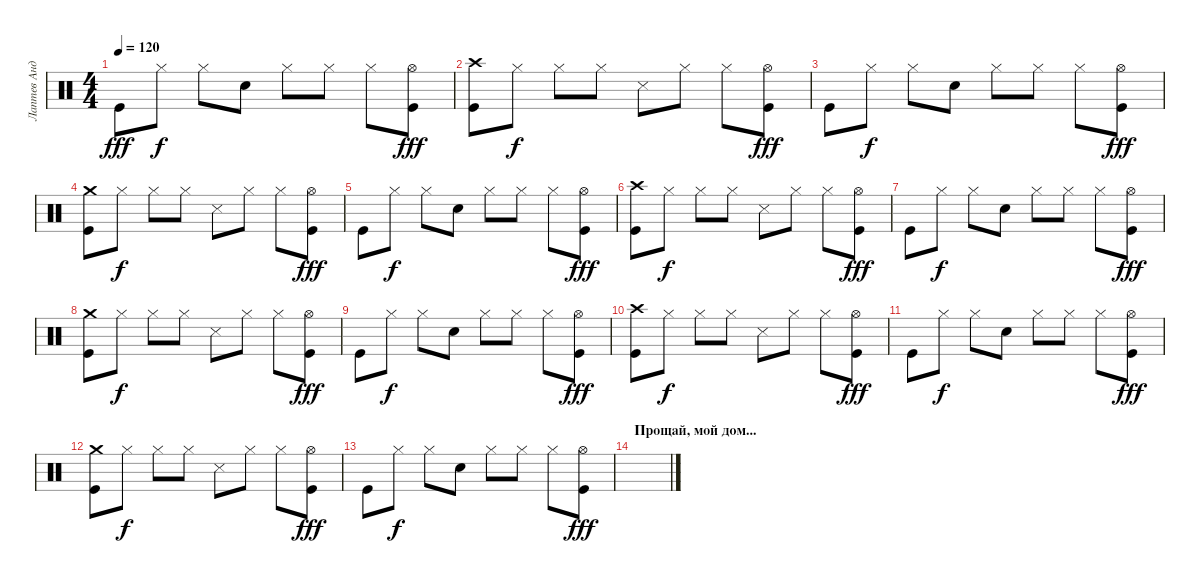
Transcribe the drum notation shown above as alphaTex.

\track ("Лаптев Андрей" "Лаптев Анд") {instrument percussion}
\staff {score}
\articulation defaults
\ts (4 4)
\tempo 120
\clef neutral
\ks c "Kick (hit)".8{dy fff} "Hi-Hat (closed)".8{dy f} "Hi-Hat (closed)".8 "Snare (hit) 2".8 "Hi-Hat (closed)".8 "Hi-Hat (closed)".8 "Hi-Hat (closed)".8
("Kick (hit)" "Hi-Hat (open)").8{dy fff} |
("Kick (hit)" "Crash high (hit)").8 "Hi-Hat (closed)".8{dy f} "Hi-Hat (closed)".8 "Hi-Hat (closed)".8 "Snare (side stick) 3".8 "Hi-Hat (closed)".8 "Hi-Hat (closed)".8 ("Hi-Hat (open)" "Kick (hit)").8{dy fff} |
"Kick (hit)".8 "Hi-Hat (closed)".8{dy f} "Hi-Hat (closed)".8 "Snare (hit) 2".8 "Hi-Hat (closed)".8 "Hi-Hat (closed)".8 "Hi-Hat (closed)".8 ("Kick (hit)" "Hi-Hat (open)").8{dy fff} |
("Kick (hit)" "Crash medium (hit)").8 "Hi-Hat (closed)".8{dy f} "Hi-Hat (closed)".8 "Hi-Hat (closed)".8 "Snare (side stick) 3".8 "Hi-Hat (closed)".8 "Hi-Hat (closed)".8 ("Kick (hit)" "Hi-Hat (open)").8{dy fff} |
"Kick (hit)".8 "Hi-Hat (closed)".8{dy f} "Hi-Hat (closed)".8 "Snare (hit) 2".8 "Hi-Hat (closed)".8 "Hi-Hat (closed)".8 "Hi-Hat (closed)".8 ("Kick (hit)" "Hi-Hat (open)").8{dy fff} |
("Kick (hit)" "Crash high (hit)").8 "Hi-Hat (closed)".8{dy f} "Hi-Hat (closed)".8 "Hi-Hat (closed)".8 "Snare (side stick) 3".8 "Hi-Hat (closed)".8 "Hi-Hat (closed)".8 ("Hi-Hat (open)" "Kick (hit)").8{dy fff} |
"Kick (hit)".8 "Hi-Hat (closed)".8{dy f} "Hi-Hat (closed)".8 "Snare (hit) 2".8 "Hi-Hat (closed)".8 "Hi-Hat (closed)".8 "Hi-Hat (closed)".8 ("Kick (hit)" "Hi-Hat (open)").8{dy fff} |
("Kick (hit)" "Crash medium (hit)").8 "Hi-Hat (closed)".8{dy f} "Hi-Hat (closed)".8 "Hi-Hat (closed)".8 "Snare (side stick) 3".8 "Hi-Hat (closed)".8 "Hi-Hat (closed)".8 ("Kick (hit)" "Hi-Hat (open)").8{dy fff} |
"Kick (hit)".8 "Hi-Hat (closed)".8{dy f} "Hi-Hat (closed)".8 "Snare (hit) 2".8 "Hi-Hat (closed)".8 "Hi-Hat (closed)".8 "Hi-Hat (closed)".8 ("Kick (hit)" "Hi-Hat (open)").8{dy fff} |
("Kick (hit)" "Crash high (hit)").8 "Hi-Hat (closed)".8{dy f} "Hi-Hat (closed)".8 "Hi-Hat (closed)".8 "Snare (side stick) 3".8 "Hi-Hat (closed)".8 "Hi-Hat (closed)".8 ("Hi-Hat (open)" "Kick (hit)").8{dy fff} |
"Kick (hit)".8 "Hi-Hat (closed)".8{dy f} "Hi-Hat (closed)".8 "Snare (hit) 2".8 "Hi-Hat (closed)".8 "Hi-Hat (closed)".8 "Hi-Hat (closed)".8 ("Kick (hit)" "Hi-Hat (open)").8{dy fff} |
("Kick (hit)" "Crash medium (hit)").8 "Hi-Hat (closed)".8{dy f} "Hi-Hat (closed)".8 "Hi-Hat (closed)".8 "Snare (side stick) 3".8 "Hi-Hat (closed)".8 "Hi-Hat (closed)".8 ("Kick (hit)" "Hi-Hat (open)").8{dy fff} |
"Kick (hit)".8 "Hi-Hat (closed)".8{dy f} "Hi-Hat (closed)".8 "Snare (hit) 2".8 "Hi-Hat (closed)".8 "Hi-Hat (closed)".8 "Hi-Hat (closed)".8 ("Kick (hit)" "Hi-Hat (open)").8{dy fff} |
\section ("" "Прощай, мой дом...")
